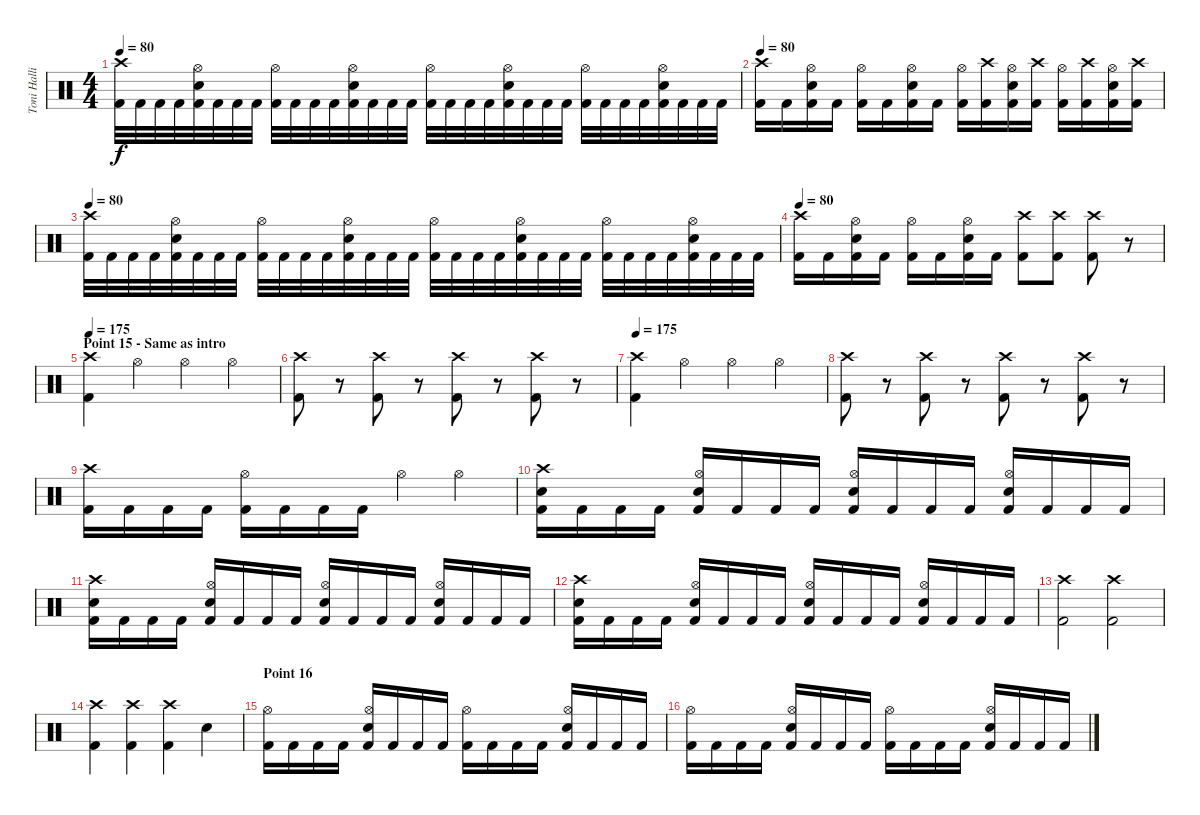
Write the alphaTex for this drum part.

\track ("Toni Hallio" "Toni Halli") {instrument percussion}
\staff {score}
\articulation defaults
\ts (4 4)
\tempo 80
\clef neutral
\ks c
("Crash high (hit)" "Kick (hit) 2").32{dy f} "Kick (hit) 2".32 "Kick (hit) 2".32 "Kick (hit) 2".32 ("Hi-Hat (open)" "Snare (hit) 2" "Kick (hit) 2").32 "Kick (hit) 2".32 "Kick (hit) 2".32 "Kick (hit) 2".32 ("Hi-Hat (open)" "Kick (hit) 2").32 "Kick (hit) 2".32 "Kick (hit) 2".32 "Kick (hit) 2".32 ("Hi-Hat (open)" "Snare (hit) 2" "Kick (hit) 2").32 "Kick (hit) 2".32 "Kick (hit) 2".32 "Kick (hit) 2".32 ("Hi-Hat (open)" "Kick (hit) 2").32 "Kick (hit) 2".32 "Kick (hit) 2".32 "Kick (hit) 2".32 ("Hi-Hat (open)" "Snare (hit) 2" "Kick (hit) 2").32 "Kick (hit) 2".32 "Kick (hit) 2".32 "Kick (hit) 2".32 ("Hi-Hat (open)" "Kick (hit) 2").32 "Kick (hit) 2".32 "Kick (hit) 2".32 "Kick (hit) 2".32 ("Hi-Hat (open)" "Snare (hit) 2" "Kick (hit) 2").32 "Kick (hit) 2".32 "Kick (hit) 2".32 "Kick (hit) 2".32 |
\tempo 80
("Crash high (hit)" "Kick (hit) 2").16 "Kick (hit) 2".16 ("Hi-Hat (open)" "Snare (hit) 2" "Kick (hit) 2").16 "Kick (hit) 2".16 ("Hi-Hat (open)" "Kick (hit) 2").16 "Kick (hit) 2".16 ("Hi-Hat (open)" "Snare (hit) 2" "Kick (hit) 2").16 "Kick (hit) 2".16 ("Hi-Hat (open)" "Kick (hit) 2").16 ("Crash high (hit)" "Kick (hit) 2").16 ("Hi-Hat (open)" "Snare (hit) 2" "Kick (hit) 2").16 ("Crash high (hit)" "Kick (hit) 2").16 ("Hi-Hat (open)" "Kick (hit) 2").16 ("Crash high (hit)" "Kick (hit) 2").16 ("Hi-Hat (open)" "Snare (hit) 2" "Kick (hit) 2").16 ("Crash high (hit)" "Kick (hit) 2").16 |
\tempo 80
("Crash high (hit)" "Kick (hit) 2").32 "Kick (hit) 2".32 "Kick (hit) 2".32 "Kick (hit) 2".32 ("Hi-Hat (open)" "Snare (hit) 2" "Kick (hit) 2").32 "Kick (hit) 2".32 "Kick (hit) 2".32 "Kick (hit) 2".32 ("Hi-Hat (open)" "Kick (hit) 2").32 "Kick (hit) 2".32 "Kick (hit) 2".32 "Kick (hit) 2".32 ("Hi-Hat (open)" "Snare (hit) 2" "Kick (hit) 2").32 "Kick (hit) 2".32 "Kick (hit) 2".32 "Kick (hit) 2".32 ("Hi-Hat (open)" "Kick (hit) 2").32 "Kick (hit) 2".32 "Kick (hit) 2".32 "Kick (hit) 2".32 ("Hi-Hat (open)" "Snare (hit) 2" "Kick (hit) 2").32 "Kick (hit) 2".32 "Kick (hit) 2".32 "Kick (hit) 2".32 ("Hi-Hat (open)" "Kick (hit) 2").32 "Kick (hit) 2".32 "Kick (hit) 2".32 "Kick (hit) 2".32 ("Hi-Hat (open)" "Snare (hit) 2" "Kick (hit) 2").32 "Kick (hit) 2".32 "Kick (hit) 2".32 "Kick (hit) 2".32 |
\tempo 80
("Crash high (hit)" "Kick (hit) 2").16 "Kick (hit) 2".16 ("Hi-Hat (open)" "Snare (hit) 2" "Kick (hit) 2").16 "Kick (hit) 2".16 ("Hi-Hat (open)" "Kick (hit) 2").16 "Kick (hit) 2".16 ("Hi-Hat (open)" "Snare (hit) 2" "Kick (hit) 2").16 "Kick (hit) 2".16 ("Crash high (hit)" "Kick (hit) 2").8 ("Crash high (hit)" "Kick (hit) 2").8 ("Crash high (hit)" "Kick (hit) 2").8 r.8 |
\section ("" "Point 15 - Same as intro")
\tempo 175
("Crash high (hit)" "Kick (hit) 2").4 "Hi-Hat (open)".4 "Hi-Hat (open)".4 "Hi-Hat (open)".4 |
("Crash high (hit)" "Kick (hit) 2").8 r.8 ("Crash high (hit)" "Kick (hit) 2").8 r.8 ("Crash high (hit)" "Kick (hit) 2").8 r.8 ("Crash high (hit)" "Kick (hit) 2").8 r.8 |
\tempo 175
("Crash high (hit)" "Kick (hit) 2").4 "Hi-Hat (open)".4 "Hi-Hat (open)".4 "Hi-Hat (open)".4 |
("Crash high (hit)" "Kick (hit) 2").8 r.8 ("Crash high (hit)" "Kick (hit) 2").8 r.8 ("Crash high (hit)" "Kick (hit) 2").8 r.8 ("Crash high (hit)" "Kick (hit) 2").8 r.8 |
("Crash high (hit)" "Kick (hit) 2").16 "Kick (hit) 2".16 "Kick (hit) 2".16 "Kick (hit) 2".16 ("Hi-Hat (open)" "Kick (hit) 2").16 "Kick (hit) 2".16 "Kick (hit) 2".16 "Kick (hit) 2".16 "Hi-Hat (open)".4 "Hi-Hat (open)".4 |
("Crash high (hit)" "Snare (hit) 2" "Kick (hit) 2").16 "Kick (hit) 2".16 "Kick (hit) 2".16 "Kick (hit) 2".16 ("Hi-Hat (open)" "Snare (hit) 2" "Kick (hit) 2").16 "Kick (hit) 2".16 "Kick (hit) 2".16 "Kick (hit) 2".16 ("Hi-Hat (open)" "Snare (hit) 2" "Kick (hit) 2").16 "Kick (hit) 2".16 "Kick (hit) 2".16 "Kick (hit) 2".16 ("Hi-Hat (open)" "Snare (hit) 2" "Kick (hit) 2").16 "Kick (hit) 2".16 "Kick (hit) 2".16 "Kick (hit) 2".16 |
("Crash high (hit)" "Snare (hit) 2" "Kick (hit) 2").16 "Kick (hit) 2".16 "Kick (hit) 2".16 "Kick (hit) 2".16 ("Hi-Hat (open)" "Snare (hit) 2" "Kick (hit) 2").16 "Kick (hit) 2".16 "Kick (hit) 2".16 "Kick (hit) 2".16 ("Hi-Hat (open)" "Snare (hit) 2" "Kick (hit) 2").16 "Kick (hit) 2".16 "Kick (hit) 2".16 "Kick (hit) 2".16 ("Hi-Hat (open)" "Snare (hit) 2" "Kick (hit) 2").16 "Kick (hit) 2".16 "Kick (hit) 2".16 "Kick (hit) 2".16 |
("Crash high (hit)" "Snare (hit) 2" "Kick (hit) 2").16 "Kick (hit) 2".16 "Kick (hit) 2".16 "Kick (hit) 2".16 ("Hi-Hat (open)" "Snare (hit) 2" "Kick (hit) 2").16 "Kick (hit) 2".16 "Kick (hit) 2".16 "Kick (hit) 2".16 ("Hi-Hat (open)" "Snare (hit) 2" "Kick (hit) 2").16 "Kick (hit) 2".16 "Kick (hit) 2".16 "Kick (hit) 2".16 ("Hi-Hat (open)" "Snare (hit) 2" "Kick (hit) 2").16 "Kick (hit) 2".16 "Kick (hit) 2".16 "Kick (hit) 2".16 |
("Crash high (hit)" "Kick (hit) 2").2 ("Crash high (hit)" "Kick (hit) 2").2 |
("Crash high (hit)" "Kick (hit) 2").4 ("Crash high (hit)" "Kick (hit) 2").4 ("Crash high (hit)" "Kick (hit) 2").4 "Snare (hit) 2".4 |
\section ("" "Point 16")
("Hi-Hat (open)" "Kick (hit) 2").16 "Kick (hit) 2".16 "Kick (hit) 2".16 "Kick (hit) 2".16 ("Hi-Hat (open)" "Snare (hit) 2" "Kick (hit) 2").16 "Kick (hit) 2".16 "Kick (hit) 2".16 "Kick (hit) 2".16 ("Hi-Hat (open)" "Kick (hit) 2").16 "Kick (hit) 2".16 "Kick (hit) 2".16 "Kick (hit) 2".16 ("Hi-Hat (open)" "Snare (hit) 2" "Kick (hit) 2").16 "Kick (hit) 2".16 "Kick (hit) 2".16 "Kick (hit) 2".16 |
("Hi-Hat (open)" "Kick (hit) 2").16 "Kick (hit) 2".16 "Kick (hit) 2".16 "Kick (hit) 2".16 ("Hi-Hat (open)" "Snare (hit) 2" "Kick (hit) 2").16 "Kick (hit) 2".16 "Kick (hit) 2".16 "Kick (hit) 2".16 ("Hi-Hat (open)" "Kick (hit) 2").16 "Kick (hit) 2".16 "Kick (hit) 2".16 "Kick (hit) 2".16 ("Hi-Hat (open)" "Snare (hit) 2" "Kick (hit) 2").16 "Kick (hit) 2".16 "Kick (hit) 2".16 "Kick (hit) 2".16
